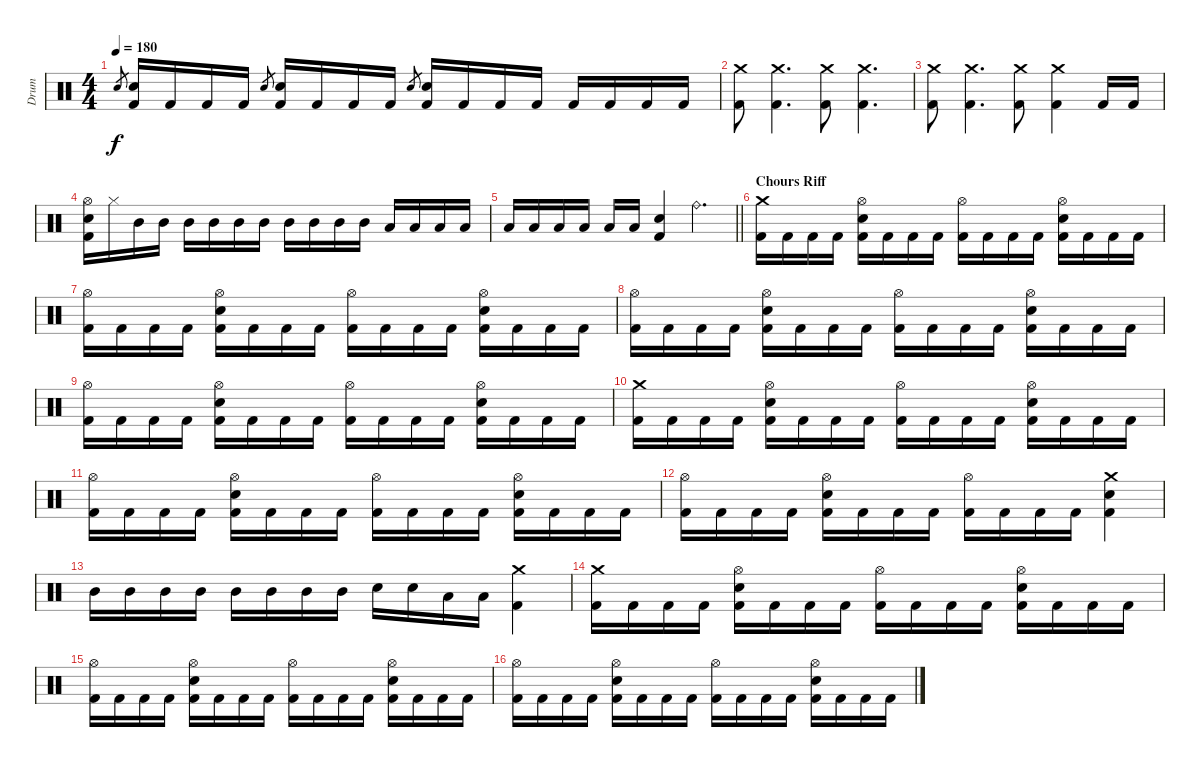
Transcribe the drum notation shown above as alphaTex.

\track ("Drum" "Drum") {instrument percussion}
\staff
\articulation defaults
\ts (4 4)
\tempo 180
\clef neutral
\ks c "Electric Snare (hit)".8{gr dy f}
("Electric Snare (hit)" "Kick (hit) 2").16 "Kick (hit) 2".16 "Kick (hit) 2".16 "Kick (hit) 2".16 "Electric Snare (hit)".8{gr} ("Electric Snare (hit)" "Kick (hit) 2").16 "Kick (hit) 2".16 "Kick (hit) 2".16 "Kick (hit) 2".16 "Electric Snare (hit)".8{gr} ("Electric Snare (hit)" "Kick (hit) 2").16 "Kick (hit) 2".16 "Kick (hit) 2".16 "Kick (hit) 2".16 "Kick (hit) 2".16 "Kick (hit) 2".16 "Kick (hit) 2".16 "Kick (hit) 2".16 |
("Crash medium (hit)" "Kick (hit) 2").8 ("Crash medium (hit)" "Kick (hit) 2").4{d} ("Crash medium (hit)" "Kick (hit) 2").8 ("Crash medium (hit)" "Kick (hit) 2").4{d} |
("Crash medium (hit)" "Kick (hit) 2").8 ("Crash medium (hit)" "Kick (hit) 2").4{d} ("Crash medium (hit)" "Kick (hit) 2").8 ("Crash medium (hit)" "Kick (hit) 2").4 "Kick (hit) 2".16 "Kick (hit) 2".16 |
("Hi-Hat (open)" "Electric Snare (hit)" "Kick (hit) 2").16 "Hi-Hat (closed)".16 "Mid Tom (hit)".16 "Mid Tom (hit)".16 "Mid Tom (hit)".16 "Mid Tom (hit)".16 "Mid Tom (hit)".16 "Mid Tom (hit)".16 "Mid Tom (hit)".16 "Mid Tom (hit)".16 "Mid Tom (hit)".16 "Mid Tom (hit)".16 "Low Tom (hit)".16 "Low Tom (hit)".16 "Low Tom (hit)".16 "Low Tom (hit)".16 |
\barLineRight lightlight "Low Tom (hit)".16 "Low Tom (hit)".16 "Low Tom (hit)".16 "Low Tom (hit)".16 "Low Tom (hit)".16 "Low Tom (hit)".16
("Electric Snare (hit)" "Kick (hit) 2").4 "Ride (bell)".4{d} |
\section ("" "Chours Riff")
("Crash medium (hit)" "Kick (hit) 2").16 "Kick (hit) 2".16 "Kick (hit) 2".16 "Kick (hit) 2".16 ("Hi-Hat (open)" "Electric Snare (hit)" "Kick (hit) 2").16 "Kick (hit) 2".16 "Kick (hit) 2".16 "Kick (hit) 2".16 ("Hi-Hat (open)" "Kick (hit) 2").16 "Kick (hit) 2".16 "Kick (hit) 2".16 "Kick (hit) 2".16 ("Hi-Hat (open)" "Electric Snare (hit)" "Kick (hit) 2").16 "Kick (hit) 2".16 "Kick (hit) 2".16 "Kick (hit) 2".16 |
("Hi-Hat (open)" "Kick (hit) 2").16 "Kick (hit) 2".16 "Kick (hit) 2".16 "Kick (hit) 2".16 ("Hi-Hat (open)" "Electric Snare (hit)" "Kick (hit) 2").16 "Kick (hit) 2".16 "Kick (hit) 2".16 "Kick (hit) 2".16 ("Hi-Hat (open)" "Kick (hit) 2").16 "Kick (hit) 2".16 "Kick (hit) 2".16 "Kick (hit) 2".16 ("Hi-Hat (open)" "Electric Snare (hit)" "Kick (hit) 2").16 "Kick (hit) 2".16 "Kick (hit) 2".16 "Kick (hit) 2".16 |
("Hi-Hat (open)" "Kick (hit) 2").16 "Kick (hit) 2".16 "Kick (hit) 2".16 "Kick (hit) 2".16 ("Hi-Hat (open)" "Electric Snare (hit)" "Kick (hit) 2").16 "Kick (hit) 2".16 "Kick (hit) 2".16 "Kick (hit) 2".16 ("Hi-Hat (open)" "Kick (hit) 2").16 "Kick (hit) 2".16 "Kick (hit) 2".16 "Kick (hit) 2".16 ("Hi-Hat (open)" "Electric Snare (hit)" "Kick (hit) 2").16 "Kick (hit) 2".16 "Kick (hit) 2".16 "Kick (hit) 2".16 |
("Hi-Hat (open)" "Kick (hit) 2").16 "Kick (hit) 2".16 "Kick (hit) 2".16 "Kick (hit) 2".16 ("Hi-Hat (open)" "Electric Snare (hit)" "Kick (hit) 2").16 "Kick (hit) 2".16 "Kick (hit) 2".16 "Kick (hit) 2".16 ("Hi-Hat (open)" "Kick (hit) 2").16 "Kick (hit) 2".16 "Kick (hit) 2".16 "Kick (hit) 2".16 ("Hi-Hat (open)" "Electric Snare (hit)" "Kick (hit) 2").16 "Kick (hit) 2".16 "Kick (hit) 2".16 "Kick (hit) 2".16 |
("Crash medium (hit)" "Kick (hit) 2").16 "Kick (hit) 2".16 "Kick (hit) 2".16 "Kick (hit) 2".16 ("Hi-Hat (open)" "Electric Snare (hit)" "Kick (hit) 2").16 "Kick (hit) 2".16 "Kick (hit) 2".16 "Kick (hit) 2".16 ("Hi-Hat (open)" "Kick (hit) 2").16 "Kick (hit) 2".16 "Kick (hit) 2".16 "Kick (hit) 2".16 ("Hi-Hat (open)" "Electric Snare (hit)" "Kick (hit) 2").16 "Kick (hit) 2".16 "Kick (hit) 2".16 "Kick (hit) 2".16 |
("Hi-Hat (open)" "Kick (hit) 2").16 "Kick (hit) 2".16 "Kick (hit) 2".16 "Kick (hit) 2".16 ("Hi-Hat (open)" "Electric Snare (hit)" "Kick (hit) 2").16 "Kick (hit) 2".16 "Kick (hit) 2".16 "Kick (hit) 2".16 ("Hi-Hat (open)" "Kick (hit) 2").16 "Kick (hit) 2".16 "Kick (hit) 2".16 "Kick (hit) 2".16 ("Hi-Hat (open)" "Electric Snare (hit)" "Kick (hit) 2").16 "Kick (hit) 2".16 "Kick (hit) 2".16 "Kick (hit) 2".16 |
("Hi-Hat (open)" "Kick (hit) 2").16 "Kick (hit) 2".16 "Kick (hit) 2".16 "Kick (hit) 2".16 ("Hi-Hat (open)" "Electric Snare (hit)" "Kick (hit) 2").16 "Kick (hit) 2".16 "Kick (hit) 2".16 "Kick (hit) 2".16 ("Hi-Hat (open)" "Kick (hit) 2").16 "Kick (hit) 2".16 "Kick (hit) 2".16 "Kick (hit) 2".16 ("Crash medium (hit)" "Electric Snare (hit)" "Kick (hit) 2").4 |
"Mid Tom (hit)".16 "Mid Tom (hit)".16 "Mid Tom (hit)".16 "Mid Tom (hit)".16 "Mid Tom (hit)".16 "Mid Tom (hit)".16 "Mid Tom (hit)".16 "Mid Tom (hit)".16 "Electric Snare (hit)".16 "Electric Snare (hit)".16 "Low Tom (hit)".16 "Low Tom (hit)".16 ("Crash medium (hit)" "Kick (hit) 2").4 |
("Crash medium (hit)" "Kick (hit) 2").16 "Kick (hit) 2".16 "Kick (hit) 2".16 "Kick (hit) 2".16 ("Hi-Hat (open)" "Electric Snare (hit)" "Kick (hit) 2").16 "Kick (hit) 2".16 "Kick (hit) 2".16 "Kick (hit) 2".16 ("Hi-Hat (open)" "Kick (hit) 2").16 "Kick (hit) 2".16 "Kick (hit) 2".16 "Kick (hit) 2".16 ("Hi-Hat (open)" "Electric Snare (hit)" "Kick (hit) 2").16 "Kick (hit) 2".16 "Kick (hit) 2".16 "Kick (hit) 2".16 |
("Hi-Hat (open)" "Kick (hit) 2").16 "Kick (hit) 2".16 "Kick (hit) 2".16 "Kick (hit) 2".16 ("Hi-Hat (open)" "Electric Snare (hit)" "Kick (hit) 2").16 "Kick (hit) 2".16 "Kick (hit) 2".16 "Kick (hit) 2".16 ("Hi-Hat (open)" "Kick (hit) 2").16 "Kick (hit) 2".16 "Kick (hit) 2".16 "Kick (hit) 2".16 ("Hi-Hat (open)" "Electric Snare (hit)" "Kick (hit) 2").16 "Kick (hit) 2".16 "Kick (hit) 2".16 "Kick (hit) 2".16 |
("Hi-Hat (open)" "Kick (hit) 2").16 "Kick (hit) 2".16 "Kick (hit) 2".16 "Kick (hit) 2".16 ("Hi-Hat (open)" "Electric Snare (hit)" "Kick (hit) 2").16 "Kick (hit) 2".16 "Kick (hit) 2".16 "Kick (hit) 2".16 ("Hi-Hat (open)" "Kick (hit) 2").16 "Kick (hit) 2".16 "Kick (hit) 2".16 "Kick (hit) 2".16 ("Hi-Hat (open)" "Electric Snare (hit)" "Kick (hit) 2").16 "Kick (hit) 2".16 "Kick (hit) 2".16 "Kick (hit) 2".16
